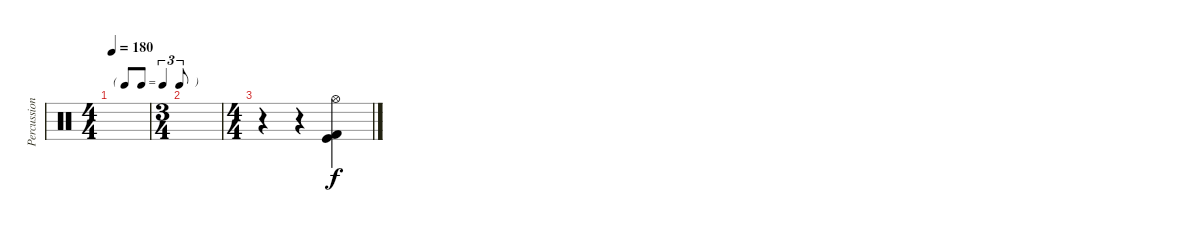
\track ("Percussions" "Percussion") {instrument percussion}
\staff {score}
\articulation defaults
\ts (4 4)
\tf triplet8th
\tempo 180
\clef neutral
\ks c
|
\ts (3 4)
|
\ts (4 4)
r.4 r.4 ("Kick (hit) 2" "Kick (hit)" "Hi-Hat (open)").4
